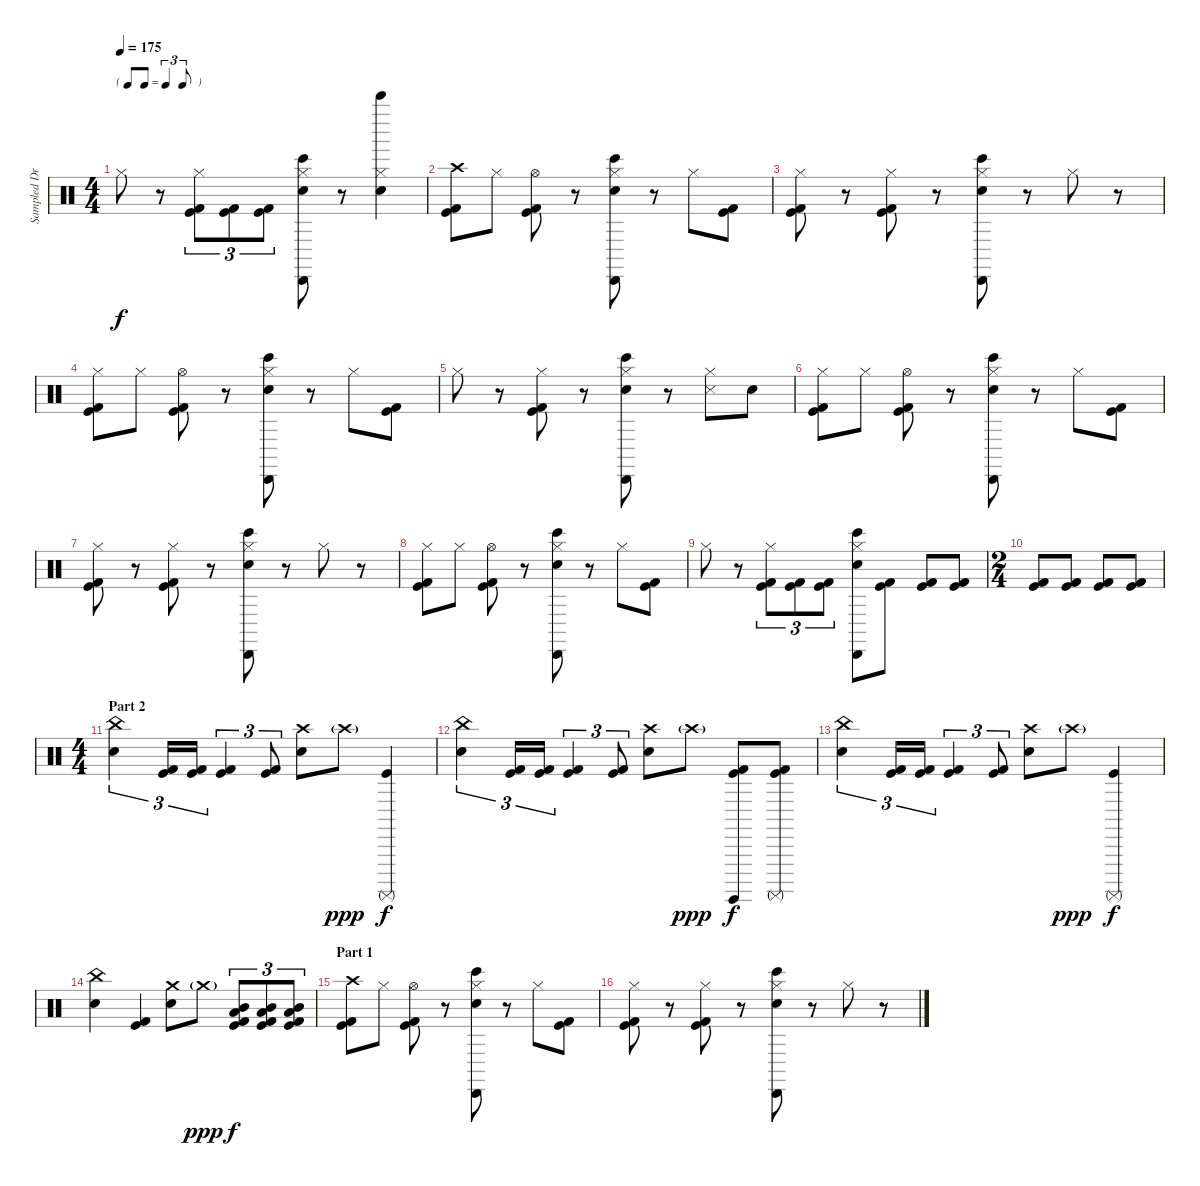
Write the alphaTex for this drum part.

\track ("Sampled Drums" "Sampled Dr") {instrument percussion}
\staff {score}
\articulation defaults
\ts (4 4)
\tf triplet8th
\tempo 175
\clef neutral
\ks c "Hi-Hat (closed)".8{dy f}
r.8 ("Hi-Hat (closed)" "Kick (hit) 2" "Kick (hit)").8{tu (3 2)} ("Kick (hit) 2" "Kick (hit)").8{tu (3 2)} ("Kick (hit) 2" "Kick (hit)").8{tu (3 2)} ("Hi-Hat (closed)" "Bongo High (hit)" "Cabasa (hit)" "Snare (hit) 2").8 r.8 ("Hi-Hat (closed)" "Metronome (bell)" "Bell Tree (hit)").4 |
("Crash high (hit)" "Kick (hit) 2" "Kick (hit)").8 "Hi-Hat (closed)".8 ("Hi-Hat (open)" "Kick (hit) 2" "Kick (hit)").8 r.8 ("Hi-Hat (closed)" "Bongo High (hit)" "Cabasa (hit)" "Snare (hit) 2").8 r.8 "Hi-Hat (closed)".8 ("Kick (hit) 2" "Kick (hit)").8 |
("Hi-Hat (closed)" "Kick (hit) 2" "Kick (hit)").8 r.8 ("Hi-Hat (closed)" "Kick (hit) 2" "Kick (hit)").8 r.8 ("Hi-Hat (closed)" "Bongo High (hit)" "Cabasa (hit)" "Snare (hit) 2").8 r.8 "Hi-Hat (closed)".8 r.8 |
("Hi-Hat (closed)" "Kick (hit) 2" "Kick (hit)").8 "Hi-Hat (closed)".8 ("Hi-Hat (open)" "Kick (hit) 2" "Kick (hit)").8 r.8 ("Hi-Hat (closed)" "Bongo High (hit)" "Cabasa (hit)" "Snare (hit) 2").8 r.8 "Hi-Hat (closed)".8 ("Kick (hit) 2" "Kick (hit)").8 |
"Hi-Hat (closed)".8 r.8 ("Hi-Hat (closed)" "Kick (hit) 2" "Kick (hit)").8 r.8 ("Hi-Hat (closed)" "Bongo High (hit)" "Cabasa (hit)" "Snare (hit) 2").8 r.8 ("Hi-Hat (closed)" "Metronome (hit)").8 "Metronome (bell)".8 |
("Hi-Hat (closed)" "Kick (hit) 2" "Kick (hit)").8 "Hi-Hat (closed)".8 ("Hi-Hat (open)" "Kick (hit) 2" "Kick (hit)").8 r.8 ("Hi-Hat (closed)" "Bongo High (hit)" "Cabasa (hit)" "Snare (hit) 2").8 r.8 "Hi-Hat (closed)".8 ("Kick (hit) 2" "Kick (hit)").8 |
("Hi-Hat (closed)" "Kick (hit) 2" "Kick (hit)").8 r.8 ("Hi-Hat (closed)" "Kick (hit) 2" "Kick (hit)").8 r.8 ("Hi-Hat (closed)" "Bongo High (hit)" "Cabasa (hit)" "Snare (hit) 2").8 r.8 "Hi-Hat (closed)".8 r.8 |
("Hi-Hat (closed)" "Kick (hit) 2" "Kick (hit)").8 "Hi-Hat (closed)".8 ("Hi-Hat (open)" "Kick (hit) 2" "Kick (hit)").8 r.8 ("Hi-Hat (closed)" "Bongo High (hit)" "Cabasa (hit)" "Snare (hit) 2").8 r.8 "Hi-Hat (closed)".8 ("Kick (hit) 2" "Kick (hit)").8 |
"Hi-Hat (closed)".8 r.8 ("Hi-Hat (closed)" "Kick (hit) 2" "Kick (hit)").8{tu (3 2)} ("Kick (hit) 2" "Kick (hit)").8{tu (3 2)} ("Kick (hit) 2" "Kick (hit)").8{tu (3 2)} ("Hi-Hat (closed)" "Bongo High (hit)" "Cabasa (hit)" "Snare (hit) 2").8 ("Kick (hit) 2" "Kick (hit)").8 ("Kick (hit) 2" "Kick (hit)").8 ("Kick (hit) 2" "Kick (hit)").8 |
\ts (2 4)
("Kick (hit) 2" "Kick (hit)").8 ("Kick (hit) 2" "Kick (hit)").8 ("Kick (hit) 2" "Kick (hit)").8 ("Kick (hit) 2" "Kick (hit)").8 |
\ts (4 4)
\section ("" "Part 2")
("China (hit)" "Electric Snare (hit)").4{tu (3 2)} ("Kick (hit) 2" "Kick (hit)").16{tu (3 2)} ("Kick (hit) 2" "Kick (hit)").16{tu (3 2)} ("Kick (hit) 2" "Kick (hit)").4{tu (3 2)} ("Kick (hit) 2" "Kick (hit)").8{tu (3 2)} ("Crash high (hit)" "Electric Snare (hit)").8 "Crash high (hit)"{g}.8{dy ppp} ("Surdo (mute)" "Kick (hit)").4{dy f} |
("China (hit)" "Electric Snare (hit)").4{tu (3 2)} ("Kick (hit) 2" "Kick (hit)").16{tu (3 2)} ("Kick (hit) 2" "Kick (hit)").16{tu (3 2)} ("Kick (hit) 2" "Kick (hit)").4{tu (3 2)} ("Kick (hit) 2" "Kick (hit)").8{tu (3 2)} ("Crash high (hit)" "Electric Snare (hit)").8 "Crash high (hit)"{g}.8{dy ppp} ("Surdo (hit)" "Kick (hit) 2" "Kick (hit)").8{dy f} ("Surdo (mute)" "Kick (hit) 2" "Kick (hit)").8 |
("China (hit)" "Electric Snare (hit)").4{tu (3 2)} ("Kick (hit) 2" "Kick (hit)").16{tu (3 2)} ("Kick (hit) 2" "Kick (hit)").16{tu (3 2)} ("Kick (hit) 2" "Kick (hit)").4{tu (3 2)} ("Kick (hit) 2" "Kick (hit)").8{tu (3 2)} ("Crash high (hit)" "Electric Snare (hit)").8 "Crash high (hit)"{g}.8{dy ppp} ("Surdo (mute)" "Kick (hit)").4{dy f} |
("China (hit)" "Electric Snare (hit)").4 ("Kick (hit) 2" "Kick (hit)").4 ("Crash medium (hit)" "Electric Snare (hit)").8 "Crash medium (hit)"{g}.8{dy ppp} ("Mid Tom (hit)" "Low Tom (hit)" "Kick (hit) 2" "Kick (hit)").8{tu (3 2) dy f} ("Mid Tom (hit)" "Low Tom (hit)" "Kick (hit) 2" "Kick (hit)").8{tu (3 2)} ("Mid Tom (hit)" "Low Tom (hit)" "Kick (hit) 2" "Kick (hit)").8{tu (3 2)} |
\section ("" "Part 1")
("Crash high (hit)" "Kick (hit) 2" "Kick (hit)").8 "Hi-Hat (closed)".8 ("Hi-Hat (open)" "Kick (hit) 2" "Kick (hit)").8 r.8 ("Hi-Hat (closed)" "Bongo High (hit)" "Cabasa (hit)" "Snare (hit) 2").8 r.8 "Hi-Hat (closed)".8 ("Kick (hit) 2" "Kick (hit)").8 |
("Hi-Hat (closed)" "Kick (hit) 2" "Kick (hit)").8 r.8 ("Hi-Hat (closed)" "Kick (hit) 2" "Kick (hit)").8 r.8 ("Hi-Hat (closed)" "Bongo High (hit)" "Cabasa (hit)" "Snare (hit) 2").8 r.8 "Hi-Hat (closed)".8 r.8
